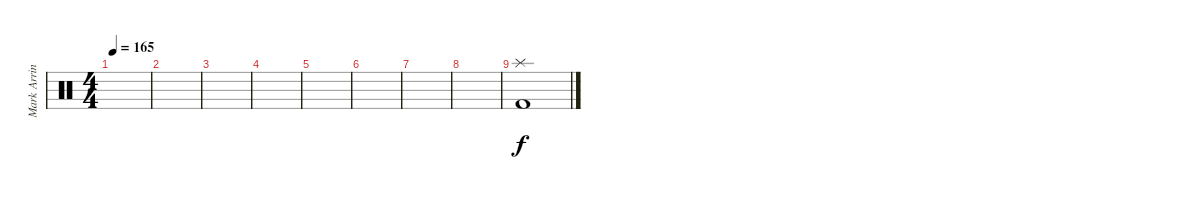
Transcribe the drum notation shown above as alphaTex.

\track ("Mark Arrington Drums" "Mark Arrin") {instrument percussion}
\staff {score}
\articulation defaults
\ts (4 4)
\tempo 165
\clef neutral
\ks c
|
|
|
|
|
|
|
|
("Splash (hit)" "Kick (hit) 2").1
